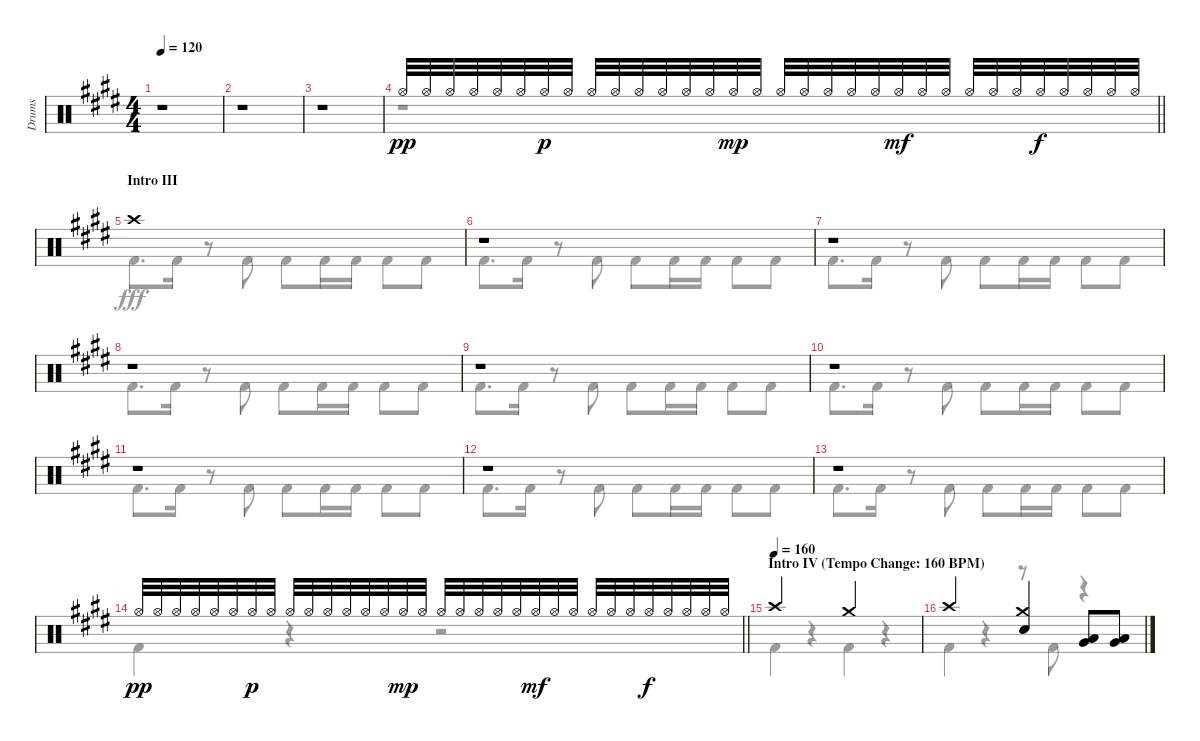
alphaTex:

\track ("Drums" "Drums") {instrument percussion}
\staff {score}
\articulation defaults
\voice
\ts (4 4)
\tempo 120
\clef neutral
\ks e
r.1{dy pp} |
r.1 |
r.1 |
\barLineRight lightlight "Hi-Hat (open)".32 "Hi-Hat (open)".32 "Hi-Hat (open)".32 "Hi-Hat (open)".32 "Hi-Hat (open)".32 "Hi-Hat (open)".32 "Hi-Hat (open)".32{dy p} "Hi-Hat (open)".32 "Hi-Hat (open)".32 "Hi-Hat (open)".32 "Hi-Hat (open)".32 "Hi-Hat (open)".32 "Hi-Hat (open)".32 "Hi-Hat (open)".32 "Hi-Hat (open)".32{dy mp} "Hi-Hat (open)".32 "Hi-Hat (open)".32 "Hi-Hat (open)".32 "Hi-Hat (open)".32 "Hi-Hat (open)".32 "Hi-Hat (open)".32 "Hi-Hat (open)".32{dy mf} "Hi-Hat (open)".32 "Hi-Hat (open)".32 "Hi-Hat (open)".32 "Hi-Hat (open)".32 "Hi-Hat (open)".32 "Hi-Hat (open)".32{dy f} "Hi-Hat (open)".32 "Hi-Hat (open)".32 "Hi-Hat (open)".32 "Hi-Hat (open)".32
|
\section ("" "Intro III")
"Crash high (hit)".1 |
r.1 |
r.1 |
r.1 |
r.1 |
r.1 |
r.1 |
r.1 |
r.1 |
\barLineRight lightlight "Hi-Hat (open)".32{dy pp} "Hi-Hat (open)".32 "Hi-Hat (open)".32 "Hi-Hat (open)".32 "Hi-Hat (open)".32 "Hi-Hat (open)".32 "Hi-Hat (open)".32{dy p} "Hi-Hat (open)".32 "Hi-Hat (open)".32 "Hi-Hat (open)".32 "Hi-Hat (open)".32 "Hi-Hat (open)".32 "Hi-Hat (open)".32 "Hi-Hat (open)".32 "Hi-Hat (open)".32{dy mp} "Hi-Hat (open)".32 "Hi-Hat (open)".32 "Hi-Hat (open)".32 "Hi-Hat (open)".32 "Hi-Hat (open)".32 "Hi-Hat (open)".32 "Hi-Hat (open)".32{dy mf} "Hi-Hat (open)".32 "Hi-Hat (open)".32 "Hi-Hat (open)".32 "Hi-Hat (open)".32 "Hi-Hat (open)".32 "Hi-Hat (open)".32{dy f} "Hi-Hat (open)".32 "Hi-Hat (open)".32 "Hi-Hat (open)".32 "Hi-Hat (open)".32
|
\section ("" "Intro IV (Tempo Change: 160 BPM)")
\tempo (160)
"Crash high (hit)".2 "Crash medium (hit)".2 |
"Crash high (hit)".2 ("Crash medium (hit)" "Snare (hit) 2").4 ("Low Tom (hit)" "Very Low Tom (hit)").8 ("Low Tom (hit)" "Very Low Tom (hit)").8
\voice
\clef neutral
\ottava regular
\simile none
\ks e
r.1{dy fff} |
r.1 |
r.1 |
\barLineRight lightlight
r.1 |
"Kick (hit) 2".8{d} "Kick (hit) 2".16 r.8 "Kick (hit) 2".8 "Kick (hit) 2".8 "Kick (hit) 2".16 "Kick (hit) 2".16 "Kick (hit) 2".8 "Kick (hit) 2".8 |
"Kick (hit) 2".8{d} "Kick (hit) 2".16 r.8 "Kick (hit) 2".8 "Kick (hit) 2".8 "Kick (hit) 2".16 "Kick (hit) 2".16 "Kick (hit) 2".8 "Kick (hit) 2".8 |
"Kick (hit) 2".8{d} "Kick (hit) 2".16 r.8 "Kick (hit) 2".8 "Kick (hit) 2".8 "Kick (hit) 2".16 "Kick (hit) 2".16 "Kick (hit) 2".8 "Kick (hit) 2".8 |
"Kick (hit) 2".8{d} "Kick (hit) 2".16 r.8 "Kick (hit) 2".8 "Kick (hit) 2".8 "Kick (hit) 2".16 "Kick (hit) 2".16 "Kick (hit) 2".8 "Kick (hit) 2".8 |
"Kick (hit) 2".8{d} "Kick (hit) 2".16 r.8 "Kick (hit) 2".8 "Kick (hit) 2".8 "Kick (hit) 2".16 "Kick (hit) 2".16 "Kick (hit) 2".8 "Kick (hit) 2".8 |
"Kick (hit) 2".8{d} "Kick (hit) 2".16 r.8 "Kick (hit) 2".8 "Kick (hit) 2".8 "Kick (hit) 2".16 "Kick (hit) 2".16 "Kick (hit) 2".8 "Kick (hit) 2".8 |
"Kick (hit) 2".8{d} "Kick (hit) 2".16 r.8 "Kick (hit) 2".8 "Kick (hit) 2".8 "Kick (hit) 2".16 "Kick (hit) 2".16 "Kick (hit) 2".8 "Kick (hit) 2".8 |
"Kick (hit) 2".8{d} "Kick (hit) 2".16 r.8 "Kick (hit) 2".8 "Kick (hit) 2".8 "Kick (hit) 2".16 "Kick (hit) 2".16 "Kick (hit) 2".8 "Kick (hit) 2".8 |
"Kick (hit) 2".8{d} "Kick (hit) 2".16 r.8 "Kick (hit) 2".8 "Kick (hit) 2".8 "Kick (hit) 2".16 "Kick (hit) 2".16 "Kick (hit) 2".8 "Kick (hit) 2".8 |
\barLineRight lightlight "Kick (hit) 2".4
r.4 r.2 |
"Kick (hit) 2".4 r.4 "Kick (hit) 2".4 r.4 |
"Kick (hit) 2".4 r.4 r.8 "Kick (hit) 2".8 r.4
